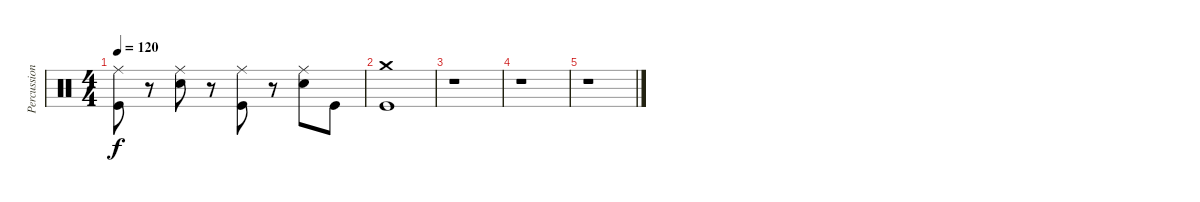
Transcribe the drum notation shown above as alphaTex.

\track ("Percussion" "Percussion") {instrument percussion}
\staff {score}
\articulation defaults
\ts (4 4)
\tempo 120
\clef neutral
\ks c
("Ride (middle)" "Kick (hit)").8{dy f} r.8 ("Ride (middle)" "Electric Snare (hit)").8 r.8 ("Ride (middle)" "Kick (hit)").8 r.8 ("Ride (middle)" "Electric Snare (hit)").8 "Kick (hit)".8 |
("Crash medium (hit)" "Kick (hit)").1 |
r.1 |
r.1 |
r.1
